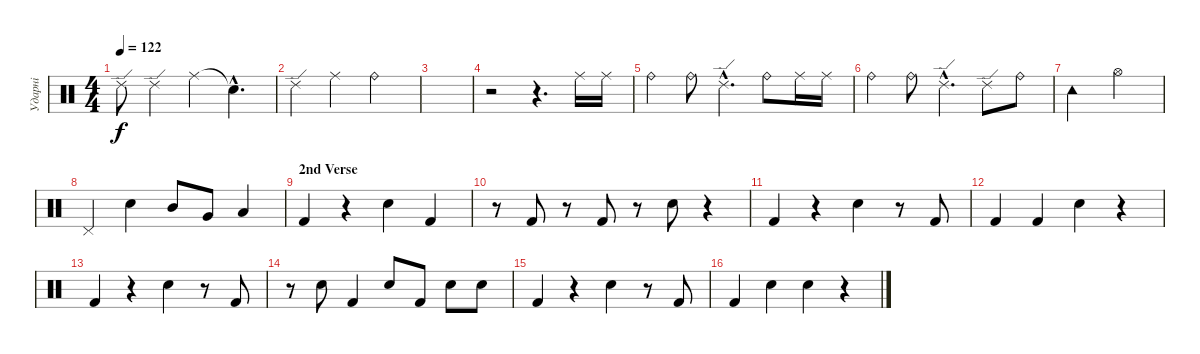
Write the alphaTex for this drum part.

\track ("Ударні" "Ударні") {instrument percussion}
\staff {score}
\articulation defaults
\ts (4 4)
\tempo 122
\clef neutral
\ks c "Ride (edge) 2"{t}.8{dy f} "Ride (edge) 2".4 "Ride (middle)".4 "Snare (hit)"{hac t}.4{d}
|
"Ride (edge) 2".4 "Ride (middle)".4 "Ride (bell)".2 |
|
r.2 r.4{d} "Ride (middle)".16 "Ride (middle)".16 |
"Ride (bell)".4 "Ride (bell)".8 "Ride (edge) 2"{hac}.4{d} "Ride (bell)".8 "Ride (middle)".16 "Ride (middle)".16 |
"Ride (bell)".4 "Ride (bell)".8 "Ride (edge) 2"{hac}.4{d} "Ride (edge) 2".8 "Ride (bell)".8 |
"Tambourine (hit)".2 "Hi-Hat (open)".2 |
"Pedal Hi-Hat (hit)".4 "Snare (hit) 2".4 "Mid Tom (hit)".8 "Very Low Tom (hit)".8 "Low Floor Tom (hit)".4 |
\section ("" "2nd Verse")
"Kick (hit) 2".4 r.4 "Snare (hit) 2".4 "Kick (hit) 2".4 |
r.8 "Kick (hit) 2".8 r.8 "Kick (hit) 2".8 r.8 "Snare (hit) 2".8 r.4 |
"Kick (hit) 2".4 r.4 "Snare (hit) 2".4 r.8 "Kick (hit) 2".8 |
"Kick (hit) 2".4 "Kick (hit) 2".4 "Snare (hit) 2".4 r.4 |
"Kick (hit) 2".4 r.4 "Snare (hit) 2".4 r.8 "Kick (hit) 2".8 |
r.8 "Snare (hit) 2".8 "Kick (hit) 2".4 "Snare (hit) 2".8 "Kick (hit) 2".8 "Snare (hit) 2".8 "Snare (hit) 2".8 |
"Kick (hit) 2".4 r.4 "Snare (hit) 2".4 r.8 "Kick (hit) 2".8 |
"Kick (hit) 2".4 "Snare (hit) 2".4 "Snare (hit) 2".4 r.4
